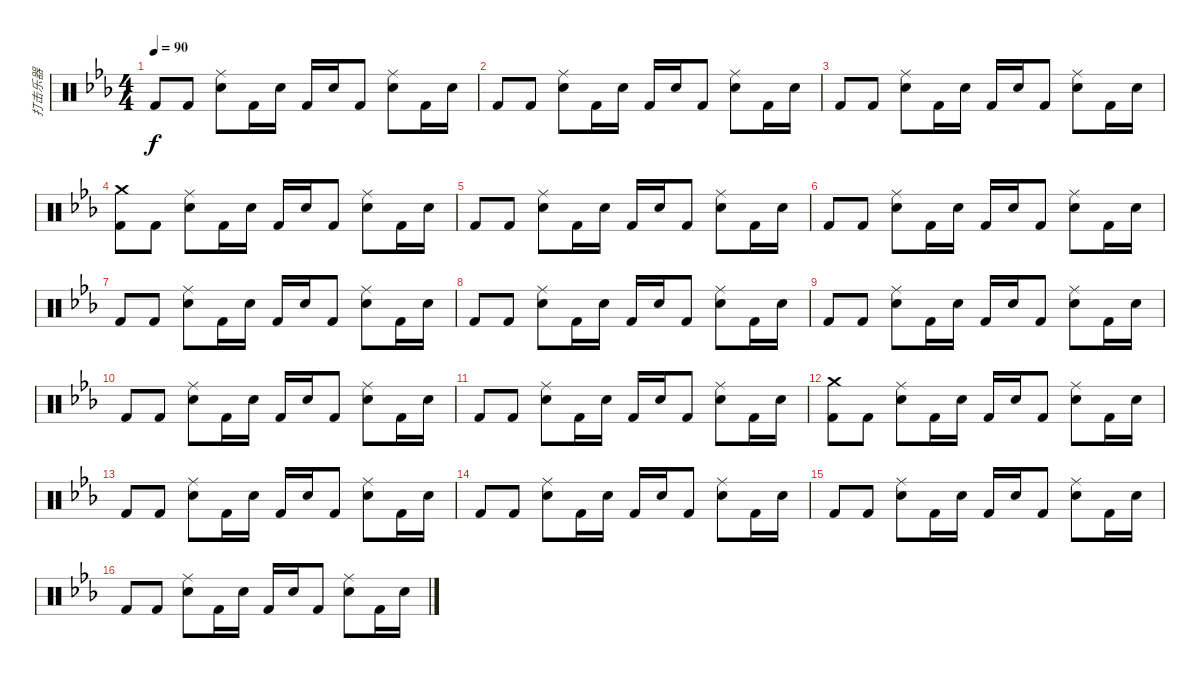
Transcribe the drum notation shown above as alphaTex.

\track ("打击乐器" "打击乐器") {instrument percussion}
\staff {score}
\articulation defaults
\ts (4 4)
\tempo 90
\clef neutral
\ks eb "Kick (hit) 2".8{dy f} "Kick (hit) 2".8
("Ride (middle)" "Electric Snare (hit)").8 "Kick (hit) 2".16 "Electric Snare (hit)".16 "Kick (hit) 2".16 "Electric Snare (hit)".16 "Kick (hit) 2".8 ("Ride (middle)" "Electric Snare (hit)").8 "Kick (hit) 2".16 "Electric Snare (hit)".16 |
"Kick (hit) 2".8 "Kick (hit) 2".8 ("Ride (middle)" "Electric Snare (hit)").8 "Kick (hit) 2".16 "Electric Snare (hit)".16 "Kick (hit) 2".16 "Electric Snare (hit)".16 "Kick (hit) 2".8 ("Ride (middle)" "Electric Snare (hit)").8 "Kick (hit) 2".16 "Electric Snare (hit)".16 |
"Kick (hit) 2".8 "Kick (hit) 2".8 ("Ride (middle)" "Electric Snare (hit)").8 "Kick (hit) 2".16 "Electric Snare (hit)".16 "Kick (hit) 2".16 "Electric Snare (hit)".16 "Kick (hit) 2".8 ("Ride (middle)" "Electric Snare (hit)").8 "Kick (hit) 2".16 "Electric Snare (hit)".16 |
("Crash medium (hit)" "Kick (hit) 2").8 "Kick (hit) 2".8 ("Ride (middle)" "Electric Snare (hit)").8 "Kick (hit) 2".16 "Electric Snare (hit)".16 "Kick (hit) 2".16 "Electric Snare (hit)".16 "Kick (hit) 2".8 ("Ride (middle)" "Electric Snare (hit)").8 "Kick (hit) 2".16 "Electric Snare (hit)".16 |
"Kick (hit) 2".8 "Kick (hit) 2".8 ("Ride (middle)" "Electric Snare (hit)").8 "Kick (hit) 2".16 "Electric Snare (hit)".16 "Kick (hit) 2".16 "Electric Snare (hit)".16 "Kick (hit) 2".8 ("Ride (middle)" "Electric Snare (hit)").8 "Kick (hit) 2".16 "Electric Snare (hit)".16 |
"Kick (hit) 2".8 "Kick (hit) 2".8 ("Ride (middle)" "Electric Snare (hit)").8 "Kick (hit) 2".16 "Electric Snare (hit)".16 "Kick (hit) 2".16 "Electric Snare (hit)".16 "Kick (hit) 2".8 ("Ride (middle)" "Electric Snare (hit)").8 "Kick (hit) 2".16 "Electric Snare (hit)".16 |
"Kick (hit) 2".8 "Kick (hit) 2".8 ("Ride (middle)" "Electric Snare (hit)").8 "Kick (hit) 2".16 "Electric Snare (hit)".16 "Kick (hit) 2".16 "Electric Snare (hit)".16 "Kick (hit) 2".8 ("Ride (middle)" "Electric Snare (hit)").8 "Kick (hit) 2".16 "Electric Snare (hit)".16 |
"Kick (hit) 2".8 "Kick (hit) 2".8 ("Ride (middle)" "Electric Snare (hit)").8 "Kick (hit) 2".16 "Electric Snare (hit)".16 "Kick (hit) 2".16 "Electric Snare (hit)".16 "Kick (hit) 2".8 ("Ride (middle)" "Electric Snare (hit)").8 "Kick (hit) 2".16 "Electric Snare (hit)".16 |
"Kick (hit) 2".8 "Kick (hit) 2".8 ("Ride (middle)" "Electric Snare (hit)").8 "Kick (hit) 2".16 "Electric Snare (hit)".16 "Kick (hit) 2".16 "Electric Snare (hit)".16 "Kick (hit) 2".8 ("Ride (middle)" "Electric Snare (hit)").8 "Kick (hit) 2".16 "Electric Snare (hit)".16 |
"Kick (hit) 2".8 "Kick (hit) 2".8 ("Ride (middle)" "Electric Snare (hit)").8 "Kick (hit) 2".16 "Electric Snare (hit)".16 "Kick (hit) 2".16 "Electric Snare (hit)".16 "Kick (hit) 2".8 ("Ride (middle)" "Electric Snare (hit)").8 "Kick (hit) 2".16 "Electric Snare (hit)".16 |
"Kick (hit) 2".8 "Kick (hit) 2".8 ("Ride (middle)" "Electric Snare (hit)").8 "Kick (hit) 2".16 "Electric Snare (hit)".16 "Kick (hit) 2".16 "Electric Snare (hit)".16 "Kick (hit) 2".8 ("Ride (middle)" "Electric Snare (hit)").8 "Kick (hit) 2".16 "Electric Snare (hit)".16 |
("Crash medium (hit)" "Kick (hit) 2").8 "Kick (hit) 2".8 ("Ride (middle)" "Electric Snare (hit)").8 "Kick (hit) 2".16 "Electric Snare (hit)".16 "Kick (hit) 2".16 "Electric Snare (hit)".16 "Kick (hit) 2".8 ("Ride (middle)" "Electric Snare (hit)").8 "Kick (hit) 2".16 "Electric Snare (hit)".16 |
"Kick (hit) 2".8 "Kick (hit) 2".8 ("Ride (middle)" "Electric Snare (hit)").8 "Kick (hit) 2".16 "Electric Snare (hit)".16 "Kick (hit) 2".16 "Electric Snare (hit)".16 "Kick (hit) 2".8 ("Ride (middle)" "Electric Snare (hit)").8 "Kick (hit) 2".16 "Electric Snare (hit)".16 |
"Kick (hit) 2".8 "Kick (hit) 2".8 ("Ride (middle)" "Electric Snare (hit)").8 "Kick (hit) 2".16 "Electric Snare (hit)".16 "Kick (hit) 2".16 "Electric Snare (hit)".16 "Kick (hit) 2".8 ("Ride (middle)" "Electric Snare (hit)").8 "Kick (hit) 2".16 "Electric Snare (hit)".16 |
"Kick (hit) 2".8 "Kick (hit) 2".8 ("Ride (middle)" "Electric Snare (hit)").8 "Kick (hit) 2".16 "Electric Snare (hit)".16 "Kick (hit) 2".16 "Electric Snare (hit)".16 "Kick (hit) 2".8 ("Ride (middle)" "Electric Snare (hit)").8 "Kick (hit) 2".16 "Electric Snare (hit)".16 |
"Kick (hit) 2".8 "Kick (hit) 2".8 ("Ride (middle)" "Electric Snare (hit)").8 "Kick (hit) 2".16 "Electric Snare (hit)".16 "Kick (hit) 2".16 "Electric Snare (hit)".16 "Kick (hit) 2".8 ("Ride (middle)" "Electric Snare (hit)").8 "Kick (hit) 2".16 "Electric Snare (hit)".16
